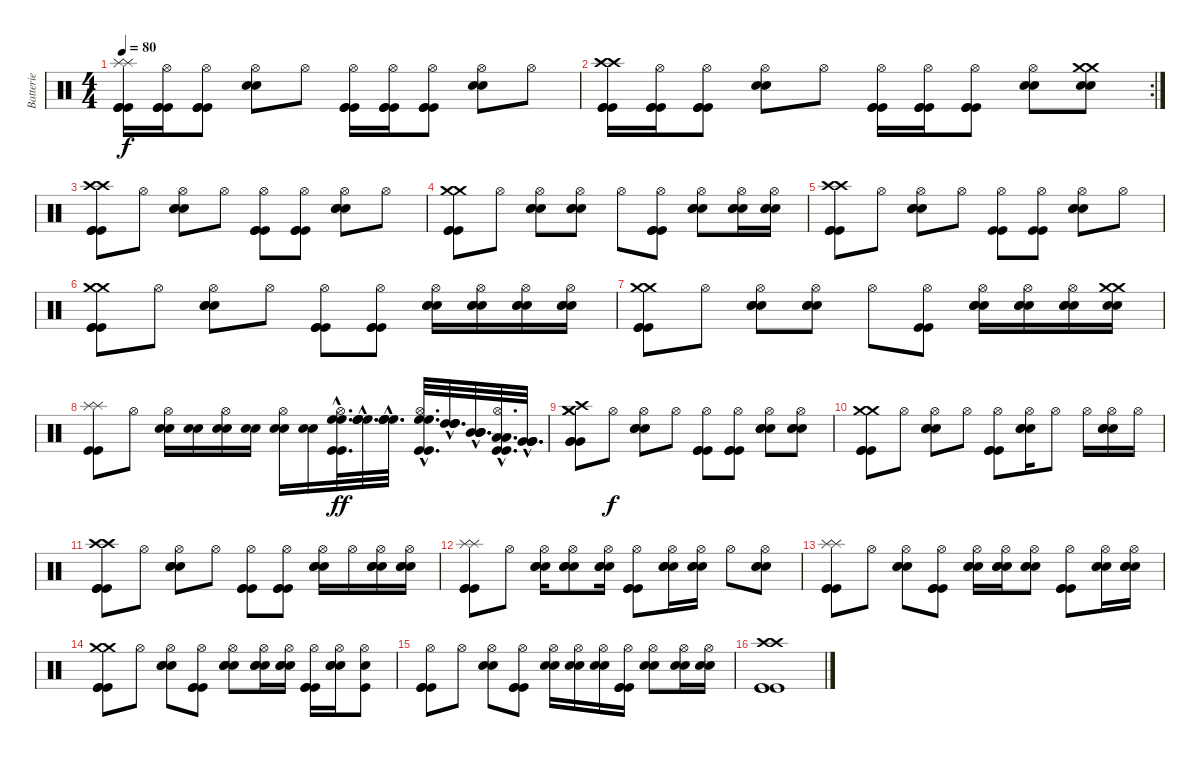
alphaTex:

\track ("Batterie" "Batterie") {instrument percussion}
\staff {score}
\articulation defaults
\ts (4 4)
\tempo 80
\clef neutral
\ks c
("Splash (hit)" "Kick (hit)" "Kick (hit)" "Kick (hit)" "Splash (hit)").16{dy f} ("Kick (hit)" "Kick (hit)" "Kick (hit)" "Hi-Hat (open)").16 ("Kick (hit)" "Kick (hit)" "Hi-Hat (open)" "Kick (hit)").8 ("Snare (hit) 2" "Snare (hit) 2" "Hi-Hat (open)").8 "Hi-Hat (open)".8 ("Kick (hit)" "Kick (hit)" "Kick (hit)" "Hi-Hat (open)").16 ("Kick (hit)" "Hi-Hat (open)" "Kick (hit)" "Kick (hit)").16 ("Kick (hit)" "Kick (hit)" "Hi-Hat (open)" "Kick (hit)").8 ("Snare (hit) 2" "Snare (hit) 2" "Hi-Hat (open)").8 "Hi-Hat (open)".8 |
\rc 2
("Crash high (hit)" "Kick (hit)" "Kick (hit)" "Kick (hit)" "Crash high (hit)").16 ("Kick (hit)" "Kick (hit)" "Kick (hit)" "Hi-Hat (open)").16 ("Kick (hit)" "Kick (hit)" "Hi-Hat (open)" "Kick (hit)").8 ("Snare (hit) 2" "Snare (hit) 2" "Hi-Hat (open)").8 "Hi-Hat (open)".8 ("Kick (hit)" "Kick (hit)" "Hi-Hat (open)" "Kick (hit)").16 ("Kick (hit)" "Kick (hit)" "Kick (hit)" "Hi-Hat (open)").16 ("Kick (hit)" "Kick (hit)" "Hi-Hat (open)" "Kick (hit)").8 ("Snare (hit) 2" "Snare (hit) 2" "Hi-Hat (open)").8 ("Snare (hit) 2" "Snare (hit) 2" "Crash medium (hit)" "Crash medium (hit)").8 |
("Crash high (hit)" "Kick (hit)" "Kick (hit)" "Kick (hit)" "Crash high (hit)").8 "Hi-Hat (open)".8 ("Hi-Hat (open)" "Snare (hit) 2" "Snare (hit) 2" "Snare (hit) 2").8 "Hi-Hat (open)".8 ("Hi-Hat (open)" "Kick (hit)" "Kick (hit)" "Kick (hit)").8 ("Hi-Hat (open)" "Kick (hit)" "Kick (hit)" "Kick (hit)").8 ("Hi-Hat (open)" "Snare (hit) 2" "Snare (hit) 2" "Snare (hit) 2").8 "Hi-Hat (open)".8 |
("Crash medium (hit)" "Kick (hit)" "Kick (hit)" "Kick (hit)" "Crash medium (hit)").8 "Hi-Hat (open)".8 ("Hi-Hat (open)" "Snare (hit) 2" "Snare (hit) 2" "Snare (hit) 2").8 ("Hi-Hat (open)" "Snare (hit) 2" "Snare (hit) 2" "Snare (hit) 2").8 "Hi-Hat (open)".8 ("Hi-Hat (open)" "Kick (hit)" "Kick (hit)" "Kick (hit)").8 ("Hi-Hat (open)" "Snare (hit) 2" "Snare (hit) 2" "Snare (hit) 2").8 ("Hi-Hat (open)" "Snare (hit) 2" "Snare (hit) 2" "Snare (hit) 2").16 ("Hi-Hat (open)" "Snare (hit) 2" "Snare (hit) 2" "Snare (hit) 2").16 |
("Crash high (hit)" "Kick (hit)" "Kick (hit)" "Kick (hit)" "Crash high (hit)").8 "Hi-Hat (open)".8 ("Hi-Hat (open)" "Snare (hit) 2" "Snare (hit) 2" "Snare (hit) 2").8 "Hi-Hat (open)".8 ("Hi-Hat (open)" "Kick (hit)" "Kick (hit)").8 ("Hi-Hat (open)" "Kick (hit)" "Kick (hit)").8 ("Hi-Hat (open)" "Snare (hit) 2" "Snare (hit) 2" "Snare (hit) 2").8 "Hi-Hat (open)".8 |
("Crash medium (hit)" "Kick (hit)" "Kick (hit)" "Kick (hit)" "Crash medium (hit)").8 "Hi-Hat (open)".8 ("Hi-Hat (open)" "Snare (hit) 2" "Snare (hit) 2" "Snare (hit) 2").8 "Hi-Hat (open)".8 ("Hi-Hat (open)" "Kick (hit)" "Kick (hit)" "Kick (hit)").8 ("Hi-Hat (open)" "Kick (hit)" "Kick (hit)" "Kick (hit)").8 ("Hi-Hat (open)" "Snare (hit) 2" "Snare (hit) 2" "Snare (hit) 2").16 ("Hi-Hat (open)" "Snare (hit) 2" "Snare (hit) 2" "Snare (hit) 2").16 ("Hi-Hat (open)" "Snare (hit) 2" "Snare (hit) 2" "Snare (hit) 2").16 ("Hi-Hat (open)" "Snare (hit) 2" "Snare (hit) 2" "Snare (hit) 2").16 |
("Crash medium (hit)" "Crash medium (hit)" "Kick (hit)" "Kick (hit)" "Kick (hit)").8 "Hi-Hat (open)".8 ("Hi-Hat (open)" "Snare (hit) 2" "Snare (hit) 2" "Snare (hit) 2").8 ("Hi-Hat (open)" "Snare (hit) 2" "Snare (hit) 2" "Snare (hit) 2").8 "Hi-Hat (open)".8 ("Hi-Hat (open)" "Kick (hit)" "Kick (hit)").8 ("Hi-Hat (open)" "Snare (hit) 2" "Snare (hit) 2" "Snare (hit) 2").16 ("Hi-Hat (open)" "Snare (hit) 2" "Snare (hit) 2" "Snare (hit) 2").16 ("Hi-Hat (open)" "Snare (hit) 2" "Snare (hit) 2" "Snare (hit) 2").16 ("Crash medium (hit)" "Crash medium (hit)" "Snare (hit) 2" "Snare (hit) 2").16 |
("Splash (hit)" "Splash (hit)" "Kick (hit)" "Kick (hit)").8 "Hi-Hat (open)".8 ("Hi-Hat (open)" "Snare (hit) 2" "Snare (hit) 2").16 ("Snare (hit) 2" "Snare (hit) 2").16 ("Hi-Hat (open)" "Snare (hit) 2" "Snare (hit) 2").16 ("Snare (hit) 2" "Snare (hit) 2").16 ("Hi-Hat (open)" "Snare (hit) 2" "Snare (hit) 2").16 ("Snare (hit) 2" "Snare (hit) 2").16 ("Hi-Hat (open)"{hac} "Kick (hit)"{hac} "Kick (hit)"{hac} "High Floor Tom (hit)"{hac} "High Floor Tom (hit)"{hac}).32{d dy ff} ("High Floor Tom (hit)"{hac} "High Floor Tom (hit)"{hac} "High Floor Tom (hit)"{hac} "High Floor Tom (hit)"{hac}).32{d} ("High Floor Tom (hit)"{hac} "High Floor Tom (hit)"{hac} "High Floor Tom (hit)"{hac} "High Floor Tom (hit)"{hac}).32{d} ("Hi-Hat (open)"{hac} "Kick (hit)"{hac} "Kick (hit)"{hac} "High Floor Tom (hit)"{hac} "High Floor Tom (hit)"{hac}).32{d} ("High Tom (hit)"{hac} "High Tom (hit)"{hac} "High Tom (hit)"{hac} "High Tom (hit)"{hac}).32{d} ("Mid Tom (hit)"{hac} "Mid Tom (hit)"{hac} "Mid Tom (hit)"{hac} "Mid Tom (hit)"{hac}).32{d} ("Hi-Hat (open)"{hac} "Kick (hit)"{hac} "Kick (hit)"{hac} "Low Tom (hit)"{hac} "Low Tom (hit)"{hac}).32{d} ("Very Low Tom (hit)"{hac} "Very Low Tom (hit)"{hac} "Very Low Tom (hit)"{hac} "Very Low Tom (hit)"{hac}).32{d} |
("Crash high (hit)" "Very Low Tom (hit)" "Very Low Tom (hit)" "Very Low Tom (hit)" "Crash medium (hit)" "Crash medium (hit)").8 "Hi-Hat (open)".8{dy f} ("Hi-Hat (open)" "Snare (hit) 2" "Snare (hit) 2" "Snare (hit) 2").8 "Hi-Hat (open)".8 ("Hi-Hat (open)" "Kick (hit)" "Kick (hit)" "Kick (hit)").8 ("Hi-Hat (open)" "Kick (hit)" "Kick (hit)" "Kick (hit)").8 ("Hi-Hat (open)" "Snare (hit) 2" "Snare (hit) 2" "Snare (hit) 2").8 ("Hi-Hat (open)" "Snare (hit) 2" "Snare (hit) 2" "Snare (hit) 2").8 |
("Crash medium (hit)" "Kick (hit)" "Kick (hit)" "Kick (hit)" "Crash medium (hit)").8 "Hi-Hat (open)".8 ("Hi-Hat (open)" "Snare (hit) 2" "Snare (hit) 2" "Snare (hit) 2").8 "Hi-Hat (open)".8 ("Hi-Hat (open)" "Kick (hit)" "Kick (hit)" "Kick (hit)").8 ("Hi-Hat (open)" "Snare (hit) 2" "Snare (hit) 2" "Snare (hit) 2").16 "Hi-Hat (open)".8 "Hi-Hat (open)".16 ("Hi-Hat (open)" "Snare (hit) 2" "Snare (hit) 2" "Snare (hit) 2").16 "Hi-Hat (open)".16 |
("Crash high (hit)" "Kick (hit)" "Kick (hit)" "Kick (hit)" "Crash high (hit)").8 "Hi-Hat (open)".8 ("Hi-Hat (open)" "Snare (hit) 2" "Snare (hit) 2" "Snare (hit) 2").8 "Hi-Hat (open)".8 ("Hi-Hat (open)" "Kick (hit)" "Kick (hit)" "Kick (hit)").8 ("Hi-Hat (open)" "Kick (hit)" "Kick (hit)" "Kick (hit)").8 ("Hi-Hat (open)" "Snare (hit) 2" "Snare (hit) 2" "Snare (hit) 2").16 "Hi-Hat (open)".16 ("Hi-Hat (open)" "Snare (hit) 2" "Snare (hit) 2" "Snare (hit) 2").16 ("Hi-Hat (open)" "Snare (hit) 2" "Snare (hit) 2" "Snare (hit) 2").16 |
("Splash (hit)" "Kick (hit)" "Kick (hit)" "Kick (hit)" "Splash (hit)").8 "Hi-Hat (open)".8 ("Hi-Hat (open)" "Snare (hit) 2" "Snare (hit) 2" "Snare (hit) 2").16 ("Hi-Hat (open)" "Snare (hit) 2" "Snare (hit) 2" "Snare (hit) 2").8 ("Hi-Hat (open)" "Snare (hit) 2" "Snare (hit) 2" "Snare (hit) 2").16 ("Hi-Hat (open)" "Kick (hit)" "Kick (hit)" "Kick (hit)").8 ("Hi-Hat (open)" "Snare (hit) 2" "Snare (hit) 2" "Snare (hit) 2").16 ("Hi-Hat (open)" "Snare (hit) 2" "Snare (hit) 2" "Snare (hit) 2").16 "Hi-Hat (open)".8 ("Hi-Hat (open)" "Snare (hit) 2" "Snare (hit) 2" "Snare (hit) 2").8 |
("Splash (hit)" "Kick (hit)" "Kick (hit)" "Kick (hit)" "Splash (hit)").8 "Hi-Hat (open)".8 ("Hi-Hat (open)" "Snare (hit) 2" "Snare (hit) 2" "Snare (hit) 2").8 ("Hi-Hat (open)" "Kick (hit)" "Kick (hit)" "Kick (hit)").8 ("Hi-Hat (open)" "Snare (hit) 2" "Snare (hit) 2" "Snare (hit) 2").16 ("Hi-Hat (open)" "Snare (hit) 2" "Snare (hit) 2" "Snare (hit) 2").16 ("Hi-Hat (open)" "Snare (hit) 2" "Snare (hit) 2" "Snare (hit) 2").8 ("Hi-Hat (open)" "Kick (hit)" "Kick (hit)" "Kick (hit)").8 ("Hi-Hat (open)" "Snare (hit) 2" "Snare (hit) 2" "Snare (hit) 2").16 ("Hi-Hat (open)" "Snare (hit) 2" "Snare (hit) 2" "Snare (hit) 2").16 |
("Crash medium (hit)" "Kick (hit)" "Kick (hit)" "Kick (hit)" "Crash medium (hit)").8 "Hi-Hat (open)".8 ("Hi-Hat (open)" "Snare (hit) 2" "Snare (hit) 2" "Snare (hit) 2").8 ("Hi-Hat (open)" "Kick (hit)" "Kick (hit)" "Kick (hit)").8 ("Hi-Hat (open)" "Snare (hit) 2" "Snare (hit) 2" "Snare (hit) 2").8 ("Hi-Hat (open)" "Snare (hit) 2" "Snare (hit) 2" "Snare (hit) 2").16 ("Hi-Hat (open)" "Snare (hit) 2" "Snare (hit) 2" "Snare (hit) 2").16 ("Hi-Hat (open)" "Kick (hit)" "Kick (hit)" "Kick (hit)").16 ("Hi-Hat (open)" "Snare (hit) 2" "Snare (hit) 2" "Snare (hit) 2").16 ("Hi-Hat (open)" "Snare (hit) 2" "Kick (hit)").8 |
("Hi-Hat (open)" "Kick (hit)" "Kick (hit)" "Kick (hit)").8 "Hi-Hat (open)".8 ("Hi-Hat (open)" "Snare (hit) 2" "Snare (hit) 2").8 ("Hi-Hat (open)" "Kick (hit)" "Kick (hit)" "Kick (hit)").8 ("Hi-Hat (open)" "Snare (hit) 2" "Snare (hit) 2").16 ("Hi-Hat (open)" "Snare (hit) 2" "Snare (hit) 2").16 ("Hi-Hat (open)" "Snare (hit) 2" "Snare (hit) 2").16 ("Hi-Hat (open)" "Kick (hit)" "Kick (hit)" "Kick (hit)").16 ("Hi-Hat (open)" "Snare (hit) 2" "Snare (hit) 2").8 ("Hi-Hat (open)" "Snare (hit) 2" "Snare (hit) 2").16 ("Hi-Hat (open)" "Snare (hit) 2" "Snare (hit) 2").16 |
("Kick (hit)" "Kick (hit)" "Crash high (hit)" "Kick (hit)" "Crash high (hit)").1
